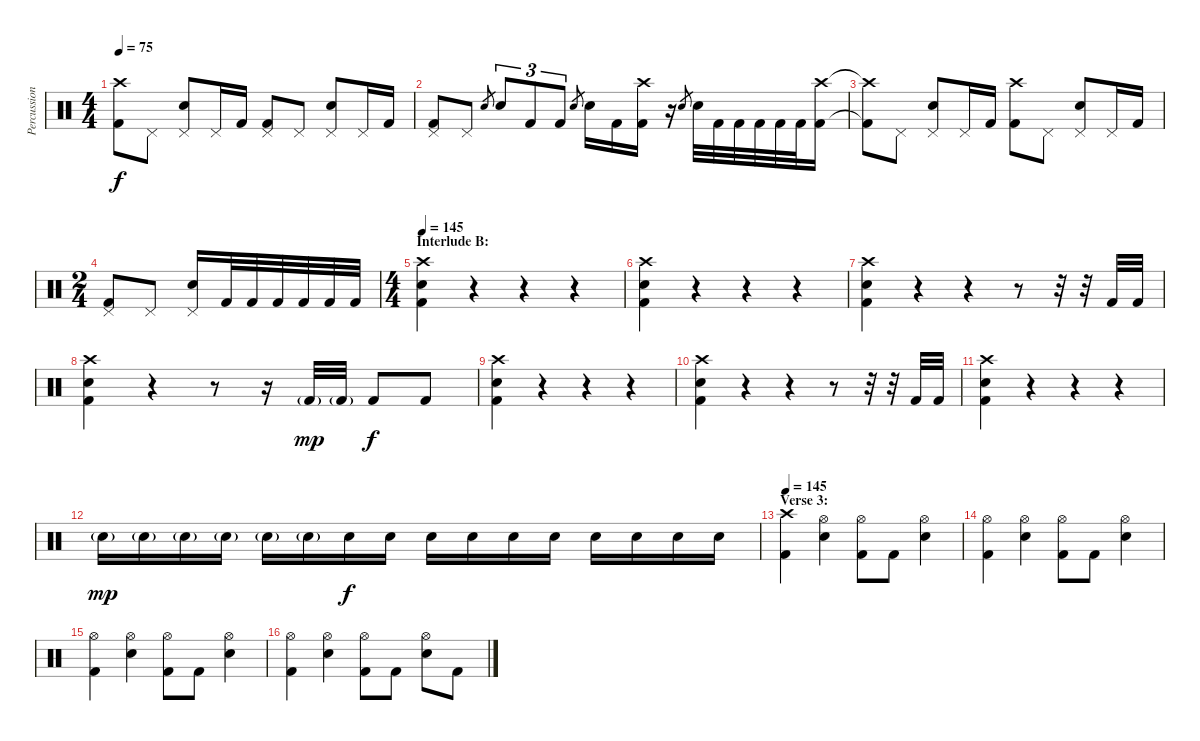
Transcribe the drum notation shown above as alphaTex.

\track ("Percussion" "Percussion") {instrument percussion}
\staff {score}
\articulation defaults
\ts (4 4)
\tempo 75
\clef neutral
\ks c
("Crash high (hit)"{t} "Kick (hit) 2"{t}).8{dy f} "Pedal Hi-Hat (hit)".8 ("Pedal Hi-Hat (hit)" "Snare (hit) 2").8 "Pedal Hi-Hat (hit)".16 "Kick (hit) 2".16 ("Pedal Hi-Hat (hit)" "Kick (hit) 2").8 "Pedal Hi-Hat (hit)".8 ("Pedal Hi-Hat (hit)" "Snare (hit) 2").8 "Pedal Hi-Hat (hit)".16 "Kick (hit) 2".16 |
("Pedal Hi-Hat (hit)" "Kick (hit) 2").8 "Pedal Hi-Hat (hit)".8 "Snare (hit) 2".8{gr} "Snare (hit) 2".8{tu (3 2)} "Kick (hit) 2".8{tu (3 2)} "Kick (hit) 2".8{tu (3 2)} "Snare (hit) 2".8{gr} "Snare (hit) 2".16 "Kick (hit) 2".16 ("Crash high (hit)" "Kick (hit) 2").16 r.16 "Snare (hit) 2".8{gr} "Snare (hit) 2".32 "Kick (hit) 2".32 "Kick (hit) 2".32 "Kick (hit) 2".32 "Kick (hit) 2".32 "Kick (hit) 2".32 ("Crash high (hit)" "Kick (hit) 2").16 |
("Crash high (hit)"{t} "Kick (hit) 2"{t}).8 "Pedal Hi-Hat (hit)".8 ("Pedal Hi-Hat (hit)" "Snare (hit) 2").8 "Pedal Hi-Hat (hit)".16 "Kick (hit) 2".16 ("Crash high (hit)" "Kick (hit) 2").8 "Pedal Hi-Hat (hit)".8 ("Pedal Hi-Hat (hit)" "Snare (hit) 2").8 "Pedal Hi-Hat (hit)".16 "Kick (hit) 2".16 |
\ts (2 4)
("Pedal Hi-Hat (hit)" "Kick (hit) 2").8 "Pedal Hi-Hat (hit)".8 ("Pedal Hi-Hat (hit)" "Snare (hit) 2").16 "Kick (hit) 2".32 "Kick (hit) 2".32 "Kick (hit) 2".32 "Kick (hit) 2".32 "Kick (hit) 2".32 "Kick (hit) 2".32 |
\ts (4 4)
\section ("" "Interlude B:")
\tempo 145
("Crash high (hit)" "Snare (hit) 2" "Kick (hit) 2").4 r.4 r.4 r.4 |
("Crash high (hit)" "Snare (hit) 2" "Kick (hit) 2").4 r.4 r.4 r.4 |
("Crash high (hit)" "Snare (hit) 2" "Kick (hit) 2").4 r.4 r.4 r.8 r.32 r.32 "Kick (hit) 2".32 "Kick (hit) 2".32 |
("Crash high (hit)" "Snare (hit) 2" "Kick (hit) 2").4 r.4 r.8 r.16 "Kick (hit) 2"{g}.32{dy mp} "Kick (hit) 2"{g}.32 "Kick (hit) 2".8{dy f} "Kick (hit) 2".8 |
("Crash high (hit)" "Snare (hit) 2" "Kick (hit) 2").4 r.4 r.4 r.4 |
("Crash high (hit)" "Snare (hit) 2" "Kick (hit) 2").4 r.4 r.4 r.8 r.32 r.32 "Kick (hit) 2".32 "Kick (hit) 2".32 |
("Crash high (hit)" "Snare (hit) 2" "Kick (hit) 2").4 r.4 r.4 r.4 |
"Snare (hit) 2"{g}.16{dy mp} "Snare (hit) 2"{g}.16 "Snare (hit) 2"{g}.16 "Snare (hit) 2"{g}.16 "Snare (hit) 2"{g}.16 "Snare (hit) 2"{g}.16 "Snare (hit) 2".16{dy f} "Snare (hit) 2".16 "Snare (hit) 2".16 "Snare (hit) 2".16 "Snare (hit) 2".16 "Snare (hit) 2".16 "Snare (hit) 2".16 "Snare (hit) 2".16 "Snare (hit) 2".16 "Snare (hit) 2".16 |
\section ("" "Verse 3:")
\tempo 145
("Crash high (hit)" "Kick (hit) 2").4 ("Hi-Hat (open)" "Snare (hit) 2").4 ("Hi-Hat (open)" "Kick (hit) 2").8 "Kick (hit) 2".8 ("Hi-Hat (open)" "Snare (hit) 2").4 |
("Hi-Hat (open)" "Kick (hit) 2").4 ("Hi-Hat (open)" "Snare (hit) 2").4 ("Hi-Hat (open)" "Kick (hit) 2").8 "Kick (hit) 2".8 ("Hi-Hat (open)" "Snare (hit) 2").4 |
("Hi-Hat (open)" "Kick (hit) 2").4 ("Hi-Hat (open)" "Snare (hit) 2").4 ("Hi-Hat (open)" "Kick (hit) 2").8 "Kick (hit) 2".8 ("Hi-Hat (open)" "Snare (hit) 2").4 |
("Hi-Hat (open)" "Kick (hit) 2").4 ("Hi-Hat (open)" "Snare (hit) 2").4 ("Hi-Hat (open)" "Kick (hit) 2").8 "Kick (hit) 2".8 ("Hi-Hat (open)" "Snare (hit) 2").8 "Kick (hit) 2".8
